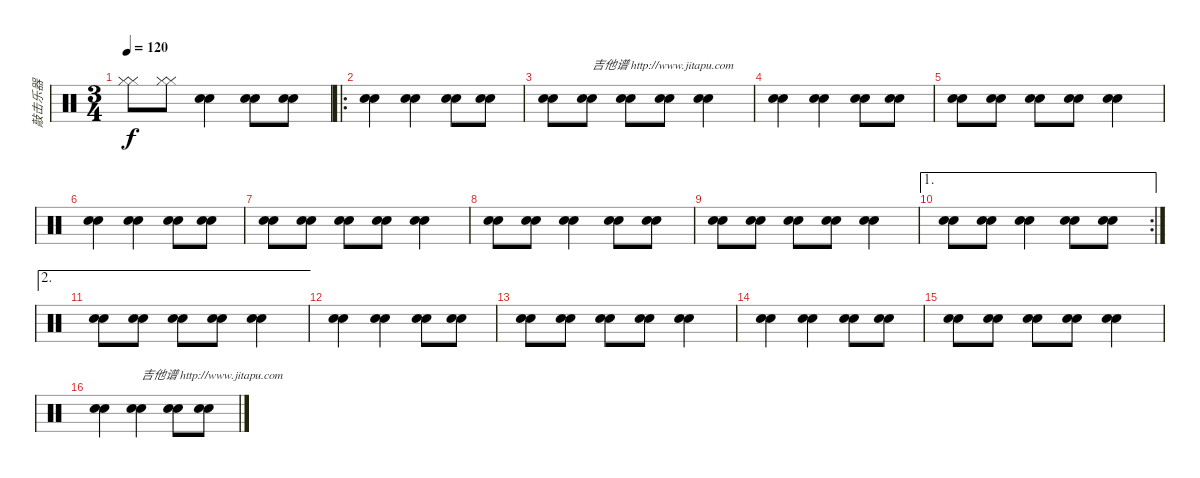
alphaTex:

\track ("敲击乐器" "敲击乐器") {instrument percussion}
\staff {score}
\articulation defaults
\ts (3 4)
\tempo 120
\clef neutral
\ks c
("Hi-Hat (closed)" "Hi-Hat (closed)").8{dy f} ("Hi-Hat (closed)" "Hi-Hat (closed)").8 ("Snare (hit) 2" "Snare (hit) 2").4 ("Snare (hit) 2" "Snare (hit) 2").8 ("Snare (hit) 2" "Snare (hit) 2").8 |
\ro
("Snare (hit) 2" "Snare (hit) 2").4 ("Snare (hit) 2" "Snare (hit) 2").4 ("Snare (hit) 2" "Snare (hit) 2").8 ("Snare (hit) 2" "Snare (hit) 2").8 |
("Snare (hit) 2" "Snare (hit) 2").8 ("Snare (hit) 2" "Snare (hit) 2").8{txt "吉他谱 http://www.jitapu.com"} ("Snare (hit) 2" "Snare (hit) 2").8 ("Snare (hit) 2" "Snare (hit) 2").8 ("Electric Snare (hit)" "Electric Snare (hit)").4 |
("Snare (hit) 2" "Snare (hit) 2").4 ("Snare (hit) 2" "Snare (hit) 2").4 ("Snare (hit) 2" "Snare (hit) 2").8 ("Snare (hit) 2" "Snare (hit) 2").8 |
("Snare (hit) 2" "Snare (hit) 2").8 ("Snare (hit) 2" "Snare (hit) 2").8 ("Snare (hit) 2" "Snare (hit) 2").8 ("Snare (hit) 2" "Snare (hit) 2").8 ("Electric Snare (hit)" "Electric Snare (hit)").4 |
("Snare (hit) 2" "Snare (hit) 2").4 ("Snare (hit) 2" "Snare (hit) 2").4 ("Snare (hit) 2" "Snare (hit) 2").8 ("Snare (hit) 2" "Snare (hit) 2").8 |
("Snare (hit) 2" "Snare (hit) 2").8 ("Snare (hit) 2" "Snare (hit) 2").8 ("Snare (hit) 2" "Snare (hit) 2").8 ("Snare (hit) 2" "Snare (hit) 2").8 ("Electric Snare (hit)" "Electric Snare (hit)").4 |
("Snare (hit) 2" "Snare (hit) 2").8 ("Snare (hit) 2" "Snare (hit) 2").8 ("Snare (hit) 2" "Snare (hit) 2").4 ("Snare (hit) 2" "Snare (hit) 2").8 ("Snare (hit) 2" "Snare (hit) 2").8 |
("Snare (hit) 2" "Snare (hit) 2").8 ("Snare (hit) 2" "Snare (hit) 2").8 ("Snare (hit) 2" "Snare (hit) 2").8 ("Snare (hit) 2" "Snare (hit) 2").8 ("Electric Snare (hit)" "Electric Snare (hit)").4 |
\ae 1
\rc 2
("Snare (hit) 2" "Snare (hit) 2").8 ("Snare (hit) 2" "Snare (hit) 2").8 ("Snare (hit) 2" "Snare (hit) 2").4 ("Snare (hit) 2" "Snare (hit) 2").8 ("Snare (hit) 2" "Snare (hit) 2").8 |
\ae 2
("Snare (hit) 2" "Snare (hit) 2").8 ("Snare (hit) 2" "Snare (hit) 2").8 ("Snare (hit) 2" "Snare (hit) 2").8 ("Snare (hit) 2" "Snare (hit) 2").8 ("Electric Snare (hit)" "Electric Snare (hit)").4 |
("Snare (hit) 2" "Snare (hit) 2").4 ("Snare (hit) 2" "Snare (hit) 2").4 ("Snare (hit) 2" "Snare (hit) 2").8 ("Snare (hit) 2" "Snare (hit) 2").8 |
("Snare (hit) 2" "Snare (hit) 2").8 ("Snare (hit) 2" "Snare (hit) 2").8 ("Snare (hit) 2" "Snare (hit) 2").8 ("Snare (hit) 2" "Snare (hit) 2").8 ("Electric Snare (hit)" "Electric Snare (hit)").4 |
("Snare (hit) 2" "Snare (hit) 2").4 ("Snare (hit) 2" "Snare (hit) 2").4 ("Snare (hit) 2" "Snare (hit) 2").8 ("Snare (hit) 2" "Snare (hit) 2").8 |
("Snare (hit) 2" "Snare (hit) 2").8 ("Snare (hit) 2" "Snare (hit) 2").8 ("Snare (hit) 2" "Snare (hit) 2").8 ("Snare (hit) 2" "Snare (hit) 2").8 ("Electric Snare (hit)" "Electric Snare (hit)").4 |
("Snare (hit) 2" "Snare (hit) 2").4 ("Snare (hit) 2" "Snare (hit) 2").4{txt "吉他谱 http://www.jitapu.com"} ("Snare (hit) 2" "Snare (hit) 2").8 ("Snare (hit) 2" "Snare (hit) 2").8
